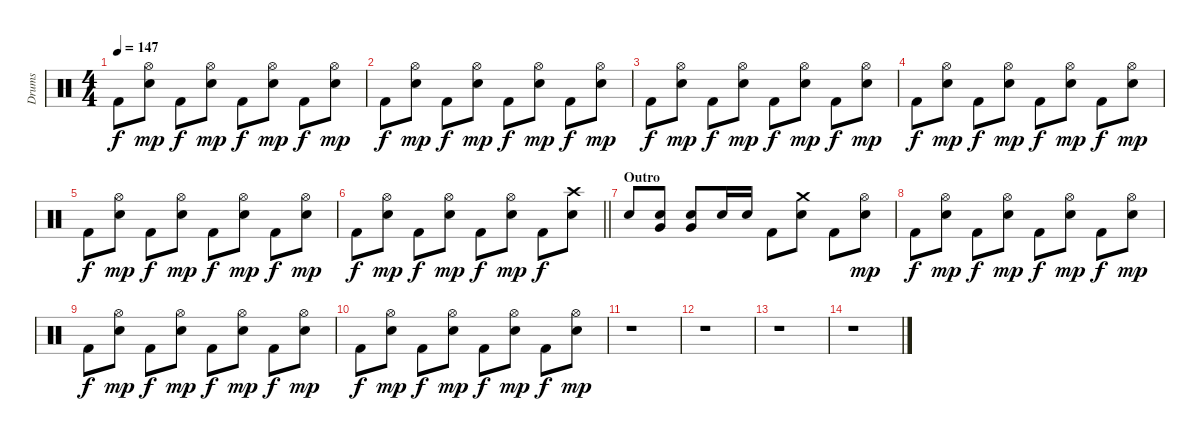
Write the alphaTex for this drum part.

\track ("Drums" "Drums") {instrument percussion}
\staff {score}
\articulation defaults
\ts (4 4)
\tempo 147
\clef neutral
\ks c "Kick (hit) 2".8{dy f}
("Hi-Hat (open)" "Snare (hit) 2").8{dy mp} "Kick (hit) 2".8{dy f} ("Hi-Hat (open)" "Snare (hit) 2").8{dy mp} "Kick (hit) 2".8{dy f} ("Hi-Hat (open)" "Snare (hit) 2").8{dy mp} "Kick (hit) 2".8{dy f} ("Hi-Hat (open)" "Snare (hit) 2").8{dy mp} |
"Kick (hit) 2".8{dy f} ("Hi-Hat (open)" "Snare (hit) 2").8{dy mp} "Kick (hit) 2".8{dy f} ("Hi-Hat (open)" "Snare (hit) 2").8{dy mp} "Kick (hit) 2".8{dy f} ("Hi-Hat (open)" "Snare (hit) 2").8{dy mp} "Kick (hit) 2".8{dy f} ("Hi-Hat (open)" "Snare (hit) 2").8{dy mp} |
"Kick (hit) 2".8{dy f} ("Hi-Hat (open)" "Snare (hit) 2").8{dy mp} "Kick (hit) 2".8{dy f} ("Hi-Hat (open)" "Snare (hit) 2").8{dy mp} "Kick (hit) 2".8{dy f} ("Hi-Hat (open)" "Snare (hit) 2").8{dy mp} "Kick (hit) 2".8{dy f} ("Hi-Hat (open)" "Snare (hit) 2").8{dy mp} |
"Kick (hit) 2".8{dy f} ("Hi-Hat (open)" "Snare (hit) 2").8{dy mp} "Kick (hit) 2".8{dy f} ("Hi-Hat (open)" "Snare (hit) 2").8{dy mp} "Kick (hit) 2".8{dy f} ("Hi-Hat (open)" "Snare (hit) 2").8{dy mp} "Kick (hit) 2".8{dy f} ("Hi-Hat (open)" "Snare (hit) 2").8{dy mp} |
"Kick (hit) 2".8{dy f} ("Hi-Hat (open)" "Snare (hit) 2").8{dy mp} "Kick (hit) 2".8{dy f} ("Hi-Hat (open)" "Snare (hit) 2").8{dy mp} "Kick (hit) 2".8{dy f} ("Hi-Hat (open)" "Snare (hit) 2").8{dy mp} "Kick (hit) 2".8{dy f} ("Hi-Hat (open)" "Snare (hit) 2").8{dy mp} |
\barLineRight lightlight "Kick (hit) 2".8{dy f}
("Hi-Hat (open)" "Snare (hit) 2").8{dy mp} "Kick (hit) 2".8{dy f} ("Hi-Hat (open)" "Snare (hit) 2").8{dy mp} "Kick (hit) 2".8{dy f} ("Hi-Hat (open)" "Snare (hit) 2").8{dy mp} "Kick (hit) 2".8{dy f} ("Crash high (hit)" "Snare (hit) 2").8 |
\section ("" "Outro")
"Snare (hit) 2".8 ("Very Low Tom (hit)" "Snare (hit) 2").8 ("Very Low Tom (hit)" "Snare (hit) 2").8 "Snare (hit) 2".16 "Snare (hit) 2".16 "Kick (hit) 2".8 ("Crash medium (hit)" "Snare (hit) 2").8 "Kick (hit) 2".8 ("Hi-Hat (open)" "Snare (hit) 2").8{dy mp} |
"Kick (hit) 2".8{dy f} ("Hi-Hat (open)" "Snare (hit) 2").8{dy mp} "Kick (hit) 2".8{dy f} ("Hi-Hat (open)" "Snare (hit) 2").8{dy mp} "Kick (hit) 2".8{dy f} ("Hi-Hat (open)" "Snare (hit) 2").8{dy mp} "Kick (hit) 2".8{dy f} ("Hi-Hat (open)" "Snare (hit) 2").8{dy mp} |
"Kick (hit) 2".8{dy f} ("Hi-Hat (open)" "Snare (hit) 2").8{dy mp} "Kick (hit) 2".8{dy f} ("Hi-Hat (open)" "Snare (hit) 2").8{dy mp} "Kick (hit) 2".8{dy f} ("Hi-Hat (open)" "Snare (hit) 2").8{dy mp} "Kick (hit) 2".8{dy f} ("Hi-Hat (open)" "Snare (hit) 2").8{dy mp} |
"Kick (hit) 2".8{dy f} ("Hi-Hat (open)" "Snare (hit) 2").8{dy mp} "Kick (hit) 2".8{dy f} ("Hi-Hat (open)" "Snare (hit) 2").8{dy mp} "Kick (hit) 2".8{dy f} ("Hi-Hat (open)" "Snare (hit) 2").8{dy mp} "Kick (hit) 2".8{dy f} ("Hi-Hat (open)" "Snare (hit) 2").8{dy mp} |
r.1 |
r.1 |
r.1 |
r.1
